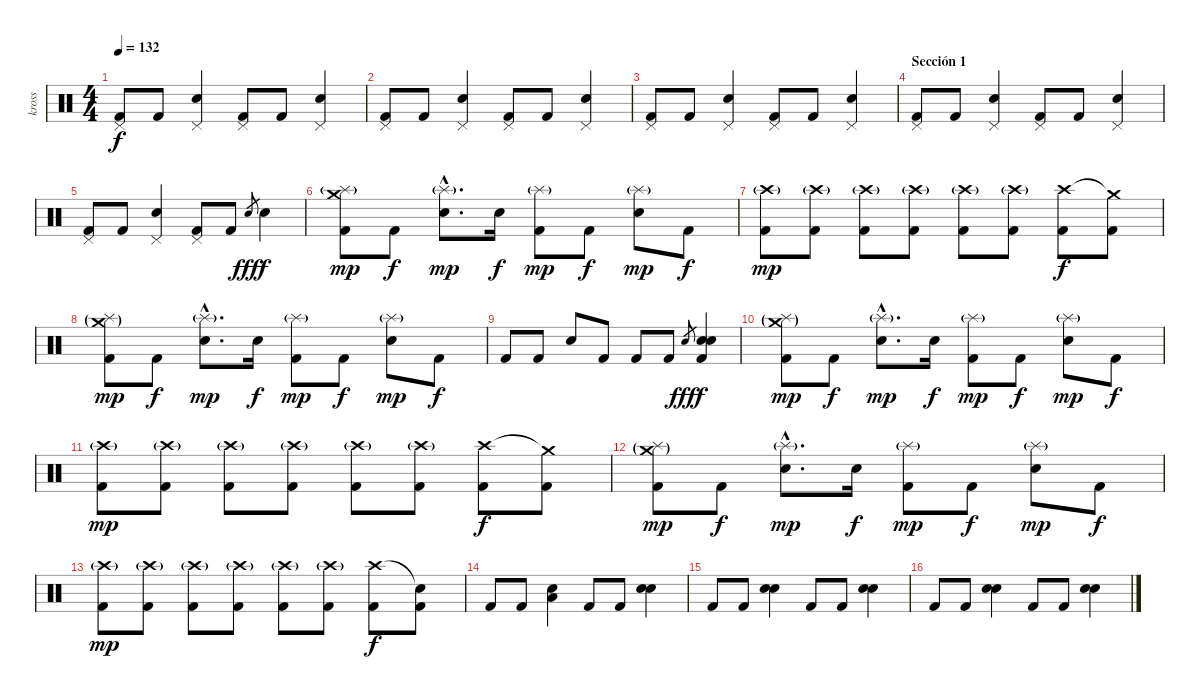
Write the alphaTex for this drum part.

\track ("kross" "kross") {instrument percussion}
\staff {score}
\articulation defaults
\ts (4 4)
\tempo 132
\clef neutral
\ks c
("Pedal Hi-Hat (hit)" "Kick (hit) 2").8{dy f} "Kick (hit) 2".8 ("Pedal Hi-Hat (hit)" "Electric Snare (hit)").4 ("Pedal Hi-Hat (hit)" "Kick (hit) 2").8 "Kick (hit) 2".8 ("Pedal Hi-Hat (hit)" "Electric Snare (hit)").4 |
("Pedal Hi-Hat (hit)" "Kick (hit) 2").8 "Kick (hit) 2".8 ("Pedal Hi-Hat (hit)" "Electric Snare (hit)").4 ("Pedal Hi-Hat (hit)" "Kick (hit) 2").8 "Kick (hit) 2".8 ("Pedal Hi-Hat (hit)" "Electric Snare (hit)").4 |
("Pedal Hi-Hat (hit)" "Kick (hit) 2").8 "Kick (hit) 2".8 ("Pedal Hi-Hat (hit)" "Electric Snare (hit)").4 ("Pedal Hi-Hat (hit)" "Kick (hit) 2").8 "Kick (hit) 2".8 ("Pedal Hi-Hat (hit)" "Electric Snare (hit)").4 |
\section ("" "Sección 1")
("Pedal Hi-Hat (hit)" "Kick (hit) 2").8 "Kick (hit) 2".8 ("Pedal Hi-Hat (hit)" "Electric Snare (hit)").4 ("Pedal Hi-Hat (hit)" "Kick (hit) 2").8 "Kick (hit) 2".8 ("Pedal Hi-Hat (hit)" "Electric Snare (hit)").4 |
("Pedal Hi-Hat (hit)" "Kick (hit) 2").8 "Kick (hit) 2".8 ("Pedal Hi-Hat (hit)" "Electric Snare (hit)").4 ("Pedal Hi-Hat (hit)" "Kick (hit) 2").8 "Kick (hit) 2".8 "Electric Snare (hit)".8{gr dy fff} "Electric Snare (hit)".4{dy f} |
("Crash medium (hit)" "Splash (hit)"{g} "Kick (hit) 2").8{dy mp} "Kick (hit) 2".8{dy f} ("Splash (hit)"{g hac} "Electric Snare (hit)"{hac}).8{d dy mp} "Electric Snare (hit)".16{dy f} ("Splash (hit)"{g} "Kick (hit) 2").8{dy mp} "Kick (hit) 2".8{dy f} ("Splash (hit)"{g} "Electric Snare (hit)").8{dy mp} "Kick (hit) 2".8{dy f} |
("Crash high (hit)"{g} "Kick (hit) 2").8{dy mp} ("Crash high (hit)"{g} "Kick (hit) 2").8 ("Crash high (hit)"{g} "Kick (hit) 2").8 ("Crash high (hit)"{g} "Kick (hit) 2").8 ("Crash high (hit)"{g} "Kick (hit) 2").8 ("Crash high (hit)"{g} "Kick (hit) 2").8 ("Crash high (hit)" "Kick (hit) 2").8{dy f} ("Crash medium (hit)"{t} "Kick (hit) 2").8 |
("Crash medium (hit)"{g} "Splash (hit)"{g} "Kick (hit) 2").8{dy mp} "Kick (hit) 2".8{dy f} ("Splash (hit)"{g hac} "Electric Snare (hit)"{hac}).8{d dy mp} "Electric Snare (hit)".16{dy f} ("Splash (hit)"{g} "Kick (hit) 2").8{dy mp} "Kick (hit) 2".8{dy f} ("Splash (hit)"{g} "Electric Snare (hit)").8{dy mp} "Kick (hit) 2".8{dy f} |
"Kick (hit) 2".8 "Kick (hit) 2".8 "Electric Snare (hit)".8 "Kick (hit) 2".8 "Kick (hit) 2".8 "Kick (hit) 2".8 "Electric Snare (hit)".8{gr dy fff} ("Electric Snare (hit)" "Electric Snare (hit)" "Kick (hit) 2").4{dy f} |
("Crash medium (hit)"{g} "Splash (hit)"{g} "Kick (hit) 2").8{dy mp} "Kick (hit) 2".8{dy f} ("Splash (hit)"{g hac} "Electric Snare (hit)"{hac}).8{d dy mp} "Electric Snare (hit)".16{dy f} ("Splash (hit)"{g} "Kick (hit) 2").8{dy mp} "Kick (hit) 2".8{dy f} ("Splash (hit)"{g} "Electric Snare (hit)").8{dy mp} "Kick (hit) 2".8{dy f} |
("Crash high (hit)"{g} "Kick (hit) 2").8{dy mp} ("Crash high (hit)"{g} "Kick (hit) 2").8 ("Crash high (hit)"{g} "Kick (hit) 2").8 ("Crash high (hit)"{g} "Kick (hit) 2").8 ("Crash high (hit)"{g} "Kick (hit) 2").8 ("Crash high (hit)"{g} "Kick (hit) 2").8 ("Crash high (hit)" "Kick (hit) 2").8{dy f} ("Crash medium (hit)"{t} "Kick (hit) 2").8 |
("Crash medium (hit)"{g} "Splash (hit)"{g} "Kick (hit) 2").8{dy mp} "Kick (hit) 2".8{dy f} ("Splash (hit)"{g hac} "Electric Snare (hit)"{hac}).8{d dy mp} "Electric Snare (hit)".16{dy f} ("Splash (hit)"{g} "Kick (hit) 2").8{dy mp} "Kick (hit) 2".8{dy f} ("Splash (hit)"{g} "Electric Snare (hit)").8{dy mp} "Kick (hit) 2".8{dy f} |
("Crash high (hit)"{g} "Kick (hit) 2").8{dy mp} ("Crash high (hit)"{g} "Kick (hit) 2").8 ("Crash high (hit)"{g} "Kick (hit) 2").8 ("Crash high (hit)"{g} "Kick (hit) 2").8 ("Crash high (hit)"{g} "Kick (hit) 2").8 ("Crash high (hit)"{g} "Kick (hit) 2").8 ("Crash high (hit)" "Kick (hit) 2").8{dy f} ("Snare (hit)"{t} "Kick (hit) 2").8 |
"Kick (hit) 2".8 "Kick (hit) 2".8 ("Low Floor Tom (hit)" "Electric Snare (hit)").4 "Kick (hit) 2".8 "Kick (hit) 2".8 ("Electric Snare (hit)" "Electric Snare (hit)").4 |
"Kick (hit) 2".8 "Kick (hit) 2".8 ("Electric Snare (hit)" "Electric Snare (hit)").4 "Kick (hit) 2".8 "Kick (hit) 2".8 ("Electric Snare (hit)" "Electric Snare (hit)").4 |
"Kick (hit) 2".8 "Kick (hit) 2".8 ("Electric Snare (hit)" "Electric Snare (hit)").4 "Kick (hit) 2".8 "Kick (hit) 2".8 ("Electric Snare (hit)" "Electric Snare (hit)").4
